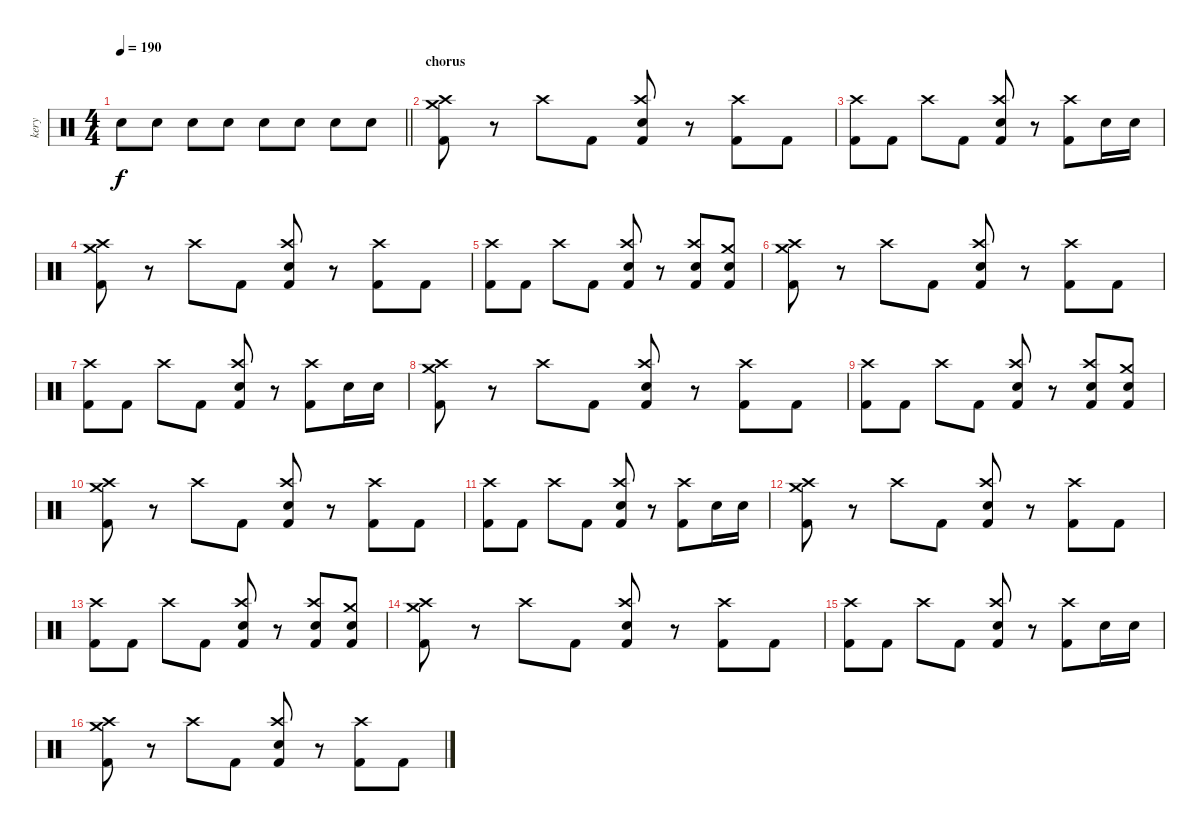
\track ("kery" "kery") {instrument percussion}
\staff {score}
\articulation defaults
\ts (4 4)
\tempo 190
\clef neutral
\barLineRight lightlight
\ks c "Electric Snare (hit)".8{dy f} "Electric Snare (hit)".8 "Electric Snare (hit)".8 "Electric Snare (hit)".8 "Electric Snare (hit)".8 "Electric Snare (hit)".8 "Electric Snare (hit)".8 "Electric Snare (hit)".8
|
\section ("" "chorus")
("Crash high (hit)" "Crash medium (hit)" "Kick (hit) 2").8 r.8 "Crash high (hit)".8 "Kick (hit) 2".8 ("Crash high (hit)" "Electric Snare (hit)" "Kick (hit) 2").8 r.8 ("Crash high (hit)" "Kick (hit) 2").8 "Kick (hit) 2".8 |
("Crash high (hit)" "Kick (hit) 2").8 "Kick (hit) 2".8 "Crash high (hit)".8 "Kick (hit) 2".8 ("Crash high (hit)" "Electric Snare (hit)" "Kick (hit) 2").8 r.8 ("Crash high (hit)" "Kick (hit) 2").8 "Electric Snare (hit)".16 "Electric Snare (hit)".16 |
("Crash high (hit)" "Crash medium (hit)" "Kick (hit) 2").8 r.8 "Crash high (hit)".8 "Kick (hit) 2".8 ("Crash high (hit)" "Electric Snare (hit)" "Kick (hit) 2").8 r.8 ("Crash high (hit)" "Kick (hit) 2").8 "Kick (hit) 2".8 |
("Crash high (hit)" "Kick (hit) 2").8 "Kick (hit) 2".8 "Crash high (hit)".8 "Kick (hit) 2".8 ("Crash high (hit)" "Electric Snare (hit)" "Kick (hit) 2").8 r.8 ("Crash high (hit)" "Electric Snare (hit)" "Kick (hit) 2").8 ("Crash medium (hit)" "Electric Snare (hit)" "Kick (hit) 2").8 |
("Crash high (hit)" "Crash medium (hit)" "Kick (hit) 2").8 r.8 "Crash high (hit)".8 "Kick (hit) 2".8 ("Crash high (hit)" "Electric Snare (hit)" "Kick (hit) 2").8 r.8 ("Crash high (hit)" "Kick (hit) 2").8 "Kick (hit) 2".8 |
("Crash high (hit)" "Kick (hit) 2").8 "Kick (hit) 2".8 "Crash high (hit)".8 "Kick (hit) 2".8 ("Crash high (hit)" "Electric Snare (hit)" "Kick (hit) 2").8 r.8 ("Crash high (hit)" "Kick (hit) 2").8 "Electric Snare (hit)".16 "Electric Snare (hit)".16 |
("Crash high (hit)" "Crash medium (hit)" "Kick (hit) 2").8 r.8 "Crash high (hit)".8 "Kick (hit) 2".8 ("Crash high (hit)" "Electric Snare (hit)" "Kick (hit) 2").8 r.8 ("Crash high (hit)" "Kick (hit) 2").8 "Kick (hit) 2".8 |
("Crash high (hit)" "Kick (hit) 2").8 "Kick (hit) 2".8 "Crash high (hit)".8 "Kick (hit) 2".8 ("Crash high (hit)" "Electric Snare (hit)" "Kick (hit) 2").8 r.8 ("Crash high (hit)" "Electric Snare (hit)" "Kick (hit) 2").8 ("Crash medium (hit)" "Electric Snare (hit)" "Kick (hit) 2").8 |
("Crash high (hit)" "Crash medium (hit)" "Kick (hit) 2").8 r.8 "Crash high (hit)".8 "Kick (hit) 2".8 ("Crash high (hit)" "Electric Snare (hit)" "Kick (hit) 2").8 r.8 ("Crash high (hit)" "Kick (hit) 2").8 "Kick (hit) 2".8 |
("Crash high (hit)" "Kick (hit) 2").8 "Kick (hit) 2".8 "Crash high (hit)".8 "Kick (hit) 2".8 ("Crash high (hit)" "Electric Snare (hit)" "Kick (hit) 2").8 r.8 ("Crash high (hit)" "Kick (hit) 2").8 "Electric Snare (hit)".16 "Electric Snare (hit)".16 |
("Crash high (hit)" "Crash medium (hit)" "Kick (hit) 2").8 r.8 "Crash high (hit)".8 "Kick (hit) 2".8 ("Crash high (hit)" "Electric Snare (hit)" "Kick (hit) 2").8 r.8 ("Crash high (hit)" "Kick (hit) 2").8 "Kick (hit) 2".8 |
("Crash high (hit)" "Kick (hit) 2").8 "Kick (hit) 2".8 "Crash high (hit)".8 "Kick (hit) 2".8 ("Crash high (hit)" "Electric Snare (hit)" "Kick (hit) 2").8 r.8 ("Crash high (hit)" "Electric Snare (hit)" "Kick (hit) 2").8 ("Crash medium (hit)" "Electric Snare (hit)" "Kick (hit) 2").8 |
("Crash high (hit)" "Crash medium (hit)" "Kick (hit) 2").8 r.8 "Crash high (hit)".8 "Kick (hit) 2".8 ("Crash high (hit)" "Electric Snare (hit)" "Kick (hit) 2").8 r.8 ("Crash high (hit)" "Kick (hit) 2").8 "Kick (hit) 2".8 |
("Crash high (hit)" "Kick (hit) 2").8 "Kick (hit) 2".8 "Crash high (hit)".8 "Kick (hit) 2".8 ("Crash high (hit)" "Electric Snare (hit)" "Kick (hit) 2").8 r.8 ("Crash high (hit)" "Kick (hit) 2").8 "Electric Snare (hit)".16 "Electric Snare (hit)".16 |
("Crash high (hit)" "Crash medium (hit)" "Kick (hit) 2").8 r.8 "Crash high (hit)".8 "Kick (hit) 2".8 ("Crash high (hit)" "Electric Snare (hit)" "Kick (hit) 2").8 r.8 ("Crash high (hit)" "Kick (hit) 2").8 "Kick (hit) 2".8
